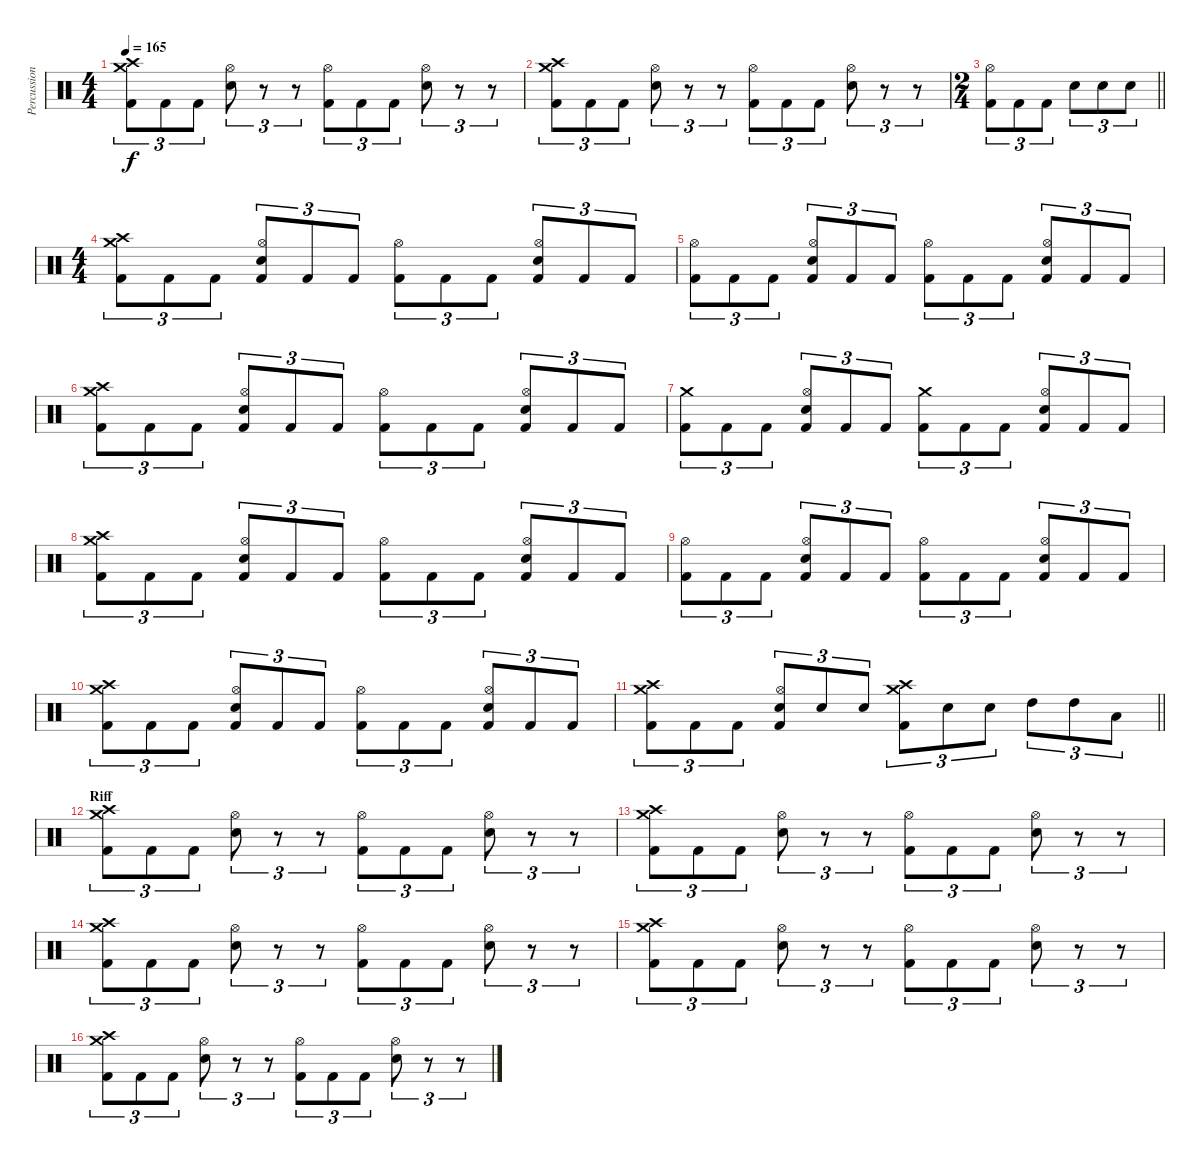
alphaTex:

\track ("Percussioni" "Percussion") {instrument percussion}
\staff {score}
\articulation defaults
\ts (4 4)
\tempo 165
\clef neutral
\ks c
("Crash high (hit)" "Crash medium (hit)" "Kick (hit) 2").8{tu (3 2) dy f} "Kick (hit) 2".8{tu (3 2)} "Kick (hit) 2".8{tu (3 2)} ("Hi-Hat (open)" "Electric Snare (hit)").8{tu (3 2)} r.8{tu (3 2)} r.8{tu (3 2)} ("Hi-Hat (open)" "Kick (hit) 2").8{tu (3 2)} "Kick (hit) 2".8{tu (3 2)} "Kick (hit) 2".8{tu (3 2)} ("Hi-Hat (open)" "Electric Snare (hit)").8{tu (3 2)} r.8{tu (3 2)} r.8{tu (3 2)} |
("Crash high (hit)" "Crash medium (hit)" "Kick (hit) 2").8{tu (3 2)} "Kick (hit) 2".8{tu (3 2)} "Kick (hit) 2".8{tu (3 2)} ("Hi-Hat (open)" "Electric Snare (hit)").8{tu (3 2)} r.8{tu (3 2)} r.8{tu (3 2)} ("Hi-Hat (open)" "Kick (hit) 2").8{tu (3 2)} "Kick (hit) 2".8{tu (3 2)} "Kick (hit) 2".8{tu (3 2)} ("Hi-Hat (open)" "Electric Snare (hit)").8{tu (3 2)} r.8{tu (3 2)} r.8{tu (3 2)} |
\ts (2 4)
\barLineRight lightlight
("Hi-Hat (open)" "Kick (hit) 2").8{tu (3 2)} "Kick (hit) 2".8{tu (3 2)} "Kick (hit) 2".8{tu (3 2)} "Electric Snare (hit)".8{tu (3 2)} "Electric Snare (hit)".8{tu (3 2)} "Electric Snare (hit)".8{tu (3 2)} |
\ts (4 4)
\section ("" "")
("Crash high (hit)" "Crash medium (hit)" "Kick (hit) 2").8{tu (3 2)} "Kick (hit) 2".8{tu (3 2)} "Kick (hit) 2".8{tu (3 2)} ("Hi-Hat (open)" "Electric Snare (hit)" "Kick (hit) 2").8{tu (3 2)} "Kick (hit) 2".8{tu (3 2)} "Kick (hit) 2".8{tu (3 2)} ("Hi-Hat (open)" "Kick (hit) 2").8{tu (3 2)} "Kick (hit) 2".8{tu (3 2)} "Kick (hit) 2".8{tu (3 2)} ("Hi-Hat (open)" "Electric Snare (hit)" "Kick (hit) 2").8{tu (3 2)} "Kick (hit) 2".8{tu (3 2)} "Kick (hit) 2".8{tu (3 2)} |
("Hi-Hat (open)" "Kick (hit) 2").8{tu (3 2)} "Kick (hit) 2".8{tu (3 2)} "Kick (hit) 2".8{tu (3 2)} ("Hi-Hat (open)" "Electric Snare (hit)" "Kick (hit) 2").8{tu (3 2)} "Kick (hit) 2".8{tu (3 2)} "Kick (hit) 2".8{tu (3 2)} ("Hi-Hat (open)" "Kick (hit) 2").8{tu (3 2)} "Kick (hit) 2".8{tu (3 2)} "Kick (hit) 2".8{tu (3 2)} ("Hi-Hat (open)" "Electric Snare (hit)" "Kick (hit) 2").8{tu (3 2)} "Kick (hit) 2".8{tu (3 2)} "Kick (hit) 2".8{tu (3 2)} |
("Crash high (hit)" "Crash medium (hit)" "Kick (hit) 2").8{tu (3 2)} "Kick (hit) 2".8{tu (3 2)} "Kick (hit) 2".8{tu (3 2)} ("Hi-Hat (open)" "Electric Snare (hit)" "Kick (hit) 2").8{tu (3 2)} "Kick (hit) 2".8{tu (3 2)} "Kick (hit) 2".8{tu (3 2)} ("Hi-Hat (open)" "Kick (hit) 2").8{tu (3 2)} "Kick (hit) 2".8{tu (3 2)} "Kick (hit) 2".8{tu (3 2)} ("Hi-Hat (open)" "Electric Snare (hit)" "Kick (hit) 2").8{tu (3 2)} "Kick (hit) 2".8{tu (3 2)} "Kick (hit) 2".8{tu (3 2)} |
("Crash medium (hit)" "Kick (hit) 2").8{tu (3 2)} "Kick (hit) 2".8{tu (3 2)} "Kick (hit) 2".8{tu (3 2)} ("Hi-Hat (open)" "Electric Snare (hit)" "Kick (hit) 2").8{tu (3 2)} "Kick (hit) 2".8{tu (3 2)} "Kick (hit) 2".8{tu (3 2)} ("Crash medium (hit)" "Kick (hit) 2").8{tu (3 2)} "Kick (hit) 2".8{tu (3 2)} "Kick (hit) 2".8{tu (3 2)} ("Hi-Hat (open)" "Electric Snare (hit)" "Kick (hit) 2").8{tu (3 2)} "Kick (hit) 2".8{tu (3 2)} "Kick (hit) 2".8{tu (3 2)} |
("Crash high (hit)" "Crash medium (hit)" "Kick (hit) 2").8{tu (3 2)} "Kick (hit) 2".8{tu (3 2)} "Kick (hit) 2".8{tu (3 2)} ("Hi-Hat (open)" "Electric Snare (hit)" "Kick (hit) 2").8{tu (3 2)} "Kick (hit) 2".8{tu (3 2)} "Kick (hit) 2".8{tu (3 2)} ("Hi-Hat (open)" "Kick (hit) 2").8{tu (3 2)} "Kick (hit) 2".8{tu (3 2)} "Kick (hit) 2".8{tu (3 2)} ("Hi-Hat (open)" "Electric Snare (hit)" "Kick (hit) 2").8{tu (3 2)} "Kick (hit) 2".8{tu (3 2)} "Kick (hit) 2".8{tu (3 2)} |
("Hi-Hat (open)" "Kick (hit) 2").8{tu (3 2)} "Kick (hit) 2".8{tu (3 2)} "Kick (hit) 2".8{tu (3 2)} ("Hi-Hat (open)" "Electric Snare (hit)" "Kick (hit) 2").8{tu (3 2)} "Kick (hit) 2".8{tu (3 2)} "Kick (hit) 2".8{tu (3 2)} ("Hi-Hat (open)" "Kick (hit) 2").8{tu (3 2)} "Kick (hit) 2".8{tu (3 2)} "Kick (hit) 2".8{tu (3 2)} ("Hi-Hat (open)" "Electric Snare (hit)" "Kick (hit) 2").8{tu (3 2)} "Kick (hit) 2".8{tu (3 2)} "Kick (hit) 2".8{tu (3 2)} |
("Crash high (hit)" "Crash medium (hit)" "Kick (hit) 2").8{tu (3 2)} "Kick (hit) 2".8{tu (3 2)} "Kick (hit) 2".8{tu (3 2)} ("Hi-Hat (open)" "Electric Snare (hit)" "Kick (hit) 2").8{tu (3 2)} "Kick (hit) 2".8{tu (3 2)} "Kick (hit) 2".8{tu (3 2)} ("Hi-Hat (open)" "Kick (hit) 2").8{tu (3 2)} "Kick (hit) 2".8{tu (3 2)} "Kick (hit) 2".8{tu (3 2)} ("Hi-Hat (open)" "Electric Snare (hit)" "Kick (hit) 2").8{tu (3 2)} "Kick (hit) 2".8{tu (3 2)} "Kick (hit) 2".8{tu (3 2)} |
\barLineRight lightlight
("Crash high (hit)" "Crash medium (hit)" "Kick (hit) 2").8{tu (3 2)} "Kick (hit) 2".8{tu (3 2)} "Kick (hit) 2".8{tu (3 2)} ("Hi-Hat (open)" "Electric Snare (hit)" "Kick (hit) 2").8{tu (3 2)} "Electric Snare (hit)".8{tu (3 2)} "Electric Snare (hit)".8{tu (3 2)} ("Crash high (hit)" "Crash medium (hit)" "Kick (hit) 2").8{tu (3 2)} "Electric Snare (hit)".8{tu (3 2)} "Electric Snare (hit)".8{tu (3 2)} "High Tom (hit)".8{tu (3 2)} "High Tom (hit)".8{tu (3 2)} "Low Tom (hit)".8{tu (3 2)} |
\section ("" "Riff")
("Crash high (hit)" "Crash medium (hit)" "Kick (hit) 2").8{tu (3 2)} "Kick (hit) 2".8{tu (3 2)} "Kick (hit) 2".8{tu (3 2)} ("Hi-Hat (open)" "Electric Snare (hit)").8{tu (3 2)} r.8{tu (3 2)} r.8{tu (3 2)} ("Hi-Hat (open)" "Kick (hit) 2").8{tu (3 2)} "Kick (hit) 2".8{tu (3 2)} "Kick (hit) 2".8{tu (3 2)} ("Hi-Hat (open)" "Electric Snare (hit)").8{tu (3 2)} r.8{tu (3 2)} r.8{tu (3 2)} |
("Crash high (hit)" "Crash medium (hit)" "Kick (hit) 2").8{tu (3 2)} "Kick (hit) 2".8{tu (3 2)} "Kick (hit) 2".8{tu (3 2)} ("Hi-Hat (open)" "Electric Snare (hit)").8{tu (3 2)} r.8{tu (3 2)} r.8{tu (3 2)} ("Hi-Hat (open)" "Kick (hit) 2").8{tu (3 2)} "Kick (hit) 2".8{tu (3 2)} "Kick (hit) 2".8{tu (3 2)} ("Hi-Hat (open)" "Electric Snare (hit)").8{tu (3 2)} r.8{tu (3 2)} r.8{tu (3 2)} |
("Crash high (hit)" "Crash medium (hit)" "Kick (hit) 2").8{tu (3 2)} "Kick (hit) 2".8{tu (3 2)} "Kick (hit) 2".8{tu (3 2)} ("Hi-Hat (open)" "Electric Snare (hit)").8{tu (3 2)} r.8{tu (3 2)} r.8{tu (3 2)} ("Hi-Hat (open)" "Kick (hit) 2").8{tu (3 2)} "Kick (hit) 2".8{tu (3 2)} "Kick (hit) 2".8{tu (3 2)} ("Hi-Hat (open)" "Electric Snare (hit)").8{tu (3 2)} r.8{tu (3 2)} r.8{tu (3 2)} |
("Crash high (hit)" "Crash medium (hit)" "Kick (hit) 2").8{tu (3 2)} "Kick (hit) 2".8{tu (3 2)} "Kick (hit) 2".8{tu (3 2)} ("Hi-Hat (open)" "Electric Snare (hit)").8{tu (3 2)} r.8{tu (3 2)} r.8{tu (3 2)} ("Hi-Hat (open)" "Kick (hit) 2").8{tu (3 2)} "Kick (hit) 2".8{tu (3 2)} "Kick (hit) 2".8{tu (3 2)} ("Hi-Hat (open)" "Electric Snare (hit)").8{tu (3 2)} r.8{tu (3 2)} r.8{tu (3 2)} |
("Crash high (hit)" "Crash medium (hit)" "Kick (hit) 2").8{tu (3 2)} "Kick (hit) 2".8{tu (3 2)} "Kick (hit) 2".8{tu (3 2)} ("Hi-Hat (open)" "Electric Snare (hit)").8{tu (3 2)} r.8{tu (3 2)} r.8{tu (3 2)} ("Hi-Hat (open)" "Kick (hit) 2").8{tu (3 2)} "Kick (hit) 2".8{tu (3 2)} "Kick (hit) 2".8{tu (3 2)} ("Hi-Hat (open)" "Electric Snare (hit)").8{tu (3 2)} r.8{tu (3 2)} r.8{tu (3 2)}
